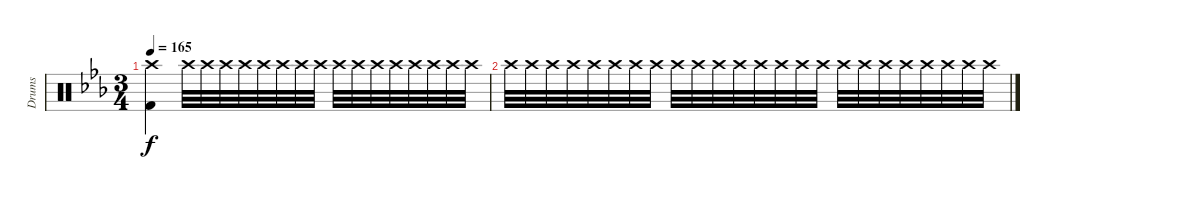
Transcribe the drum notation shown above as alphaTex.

\track ("Drums" "Drums") {instrument percussion}
\staff {score}
\articulation defaults
\ts (3 4)
\tempo 165
\clef neutral
\ks eb
("Crash high (hit)" "Kick (hit) 2").4{dy f} "Crash high (hit)".32{volume 8} "Crash high (hit)".32{volume 14} "Crash high (hit)".32 "Crash high (hit)".32 "Crash high (hit)".32 "Crash high (hit)".32 "Crash high (hit)".32 "Crash high (hit)".32 "Crash high (hit)".32 "Crash high (hit)".32 "Crash high (hit)".32 "Crash high (hit)".32 "Crash high (hit)".32 "Crash high (hit)".32 "Crash high (hit)".32 "Crash high (hit)".32 |
"Crash high (hit)".32 "Crash high (hit)".32 "Crash high (hit)".32 "Crash high (hit)".32 "Crash high (hit)".32 "Crash high (hit)".32 "Crash high (hit)".32 "Crash high (hit)".32 "Crash high (hit)".32 "Crash high (hit)".32 "Crash high (hit)".32 "Crash high (hit)".32 "Crash high (hit)".32 "Crash high (hit)".32 "Crash high (hit)".32 "Crash high (hit)".32 "Crash high (hit)".32 "Crash high (hit)".32 "Crash high (hit)".32 "Crash high (hit)".32 "Crash high (hit)".32 "Crash high (hit)".32 "Crash high (hit)".32 "Crash high (hit)".32
